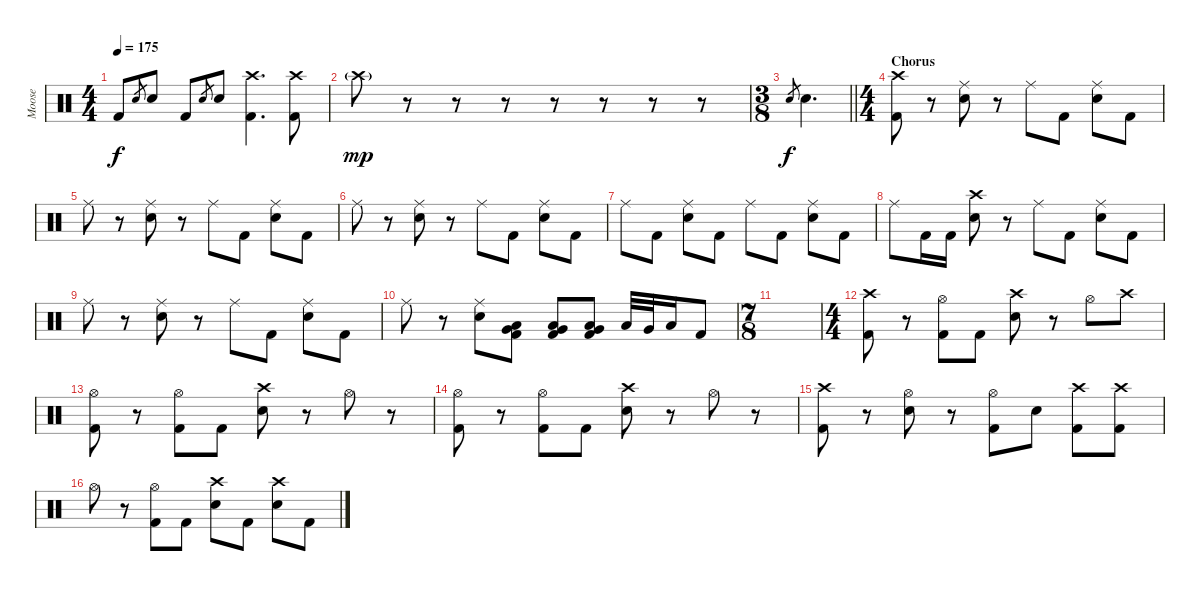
\track ("Moose" "Moose") {instrument percussion}
\staff {score}
\articulation defaults
\ts (4 4)
\tempo 175
\clef neutral
\ks c "Kick (hit) 2".8{dy f} "Electric Snare (hit)".8{gr} "Electric Snare (hit)".8 "Kick (hit) 2".8 "Electric Snare (hit)".8{gr} "Electric Snare (hit)".8
("Crash high (hit)" "Kick (hit) 2").4{d} ("Crash high (hit)" "Kick (hit) 2").8 |
"Crash high (hit)"{g}.8{dy mp volume 0} r.8 r.8 r.8 r.8 r.8{volume 16} r.8 r.8 |
\ts (3 8)
\barLineRight lightlight "Electric Snare (hit)".8{gr dy f} "Electric Snare (hit)".4{d}
|
\ts (4 4)
\section ("" "Chorus")
("Crash high (hit)" "Kick (hit) 2").8{volume 16} r.8 ("Ride (middle)" "Electric Snare (hit)").8 r.8 "Ride (middle)".8 "Kick (hit) 2".8 ("Ride (middle)" "Electric Snare (hit)").8 "Kick (hit) 2".8 |
"Ride (middle)".8 r.8 ("Ride (middle)" "Electric Snare (hit)").8 r.8 "Ride (middle)".8 "Kick (hit) 2".8 ("Ride (middle)" "Electric Snare (hit)").8 "Kick (hit) 2".8 |
"Ride (middle)".8 r.8 ("Ride (middle)" "Electric Snare (hit)").8 r.8 "Ride (middle)".8 "Kick (hit) 2".8 ("Ride (middle)" "Electric Snare (hit)").8 "Kick (hit) 2".8 |
"Ride (middle)".8 "Kick (hit) 2".8 ("Ride (middle)" "Electric Snare (hit)").8 "Kick (hit) 2".8 "Ride (middle)".8 "Kick (hit) 2".8 ("Ride (middle)" "Electric Snare (hit)").8 "Kick (hit) 2".8 |
"Ride (middle)".8 "Kick (hit) 2".16 "Kick (hit) 2".16 ("Crash high (hit)" "Electric Snare (hit)").8 r.8 "Ride (middle)".8 "Kick (hit) 2".8 ("Ride (middle)" "Electric Snare (hit)").8 "Kick (hit) 2".8 |
"Ride (middle)".8 r.8 ("Ride (middle)" "Electric Snare (hit)").8 r.8 "Ride (middle)".8 "Kick (hit) 2".8 ("Ride (middle)" "Electric Snare (hit)").8 "Kick (hit) 2".8 |
"Ride (middle)".8 r.8 ("Ride (middle)" "Electric Snare (hit)").8 ("Low Floor Tom (hit)" "Very Low Tom (hit)" "Kick (hit) 2").8 ("Low Floor Tom (hit)" "Very Low Tom (hit)" "Kick (hit) 2").8 ("Low Floor Tom (hit)" "Very Low Tom (hit)" "Kick (hit) 2").8 "Low Tom (hit)".32 "Very Low Tom (hit)".32 "Low Floor Tom (hit)".16 "Kick (hit) 2".8 |
\ts (7 8)
|
\ts (4 4)
("Crash high (hit)" "Kick (hit) 2").8 r.8 ("Hi-Hat (open)" "Kick (hit) 2").8 "Kick (hit) 2".8 ("Crash high (hit)" "Electric Snare (hit)").8 r.8 "Hi-Hat (open)".8 "Crash high (hit)".8 |
("Hi-Hat (open)" "Kick (hit) 2").8 r.8 ("Hi-Hat (open)" "Kick (hit) 2").8 "Kick (hit) 2".8 ("Crash high (hit)" "Electric Snare (hit)").8 r.8 "Hi-Hat (open)".8 r.8 |
("Hi-Hat (open)" "Kick (hit) 2").8 r.8 ("Hi-Hat (open)" "Kick (hit) 2").8 "Kick (hit) 2".8 ("Crash high (hit)" "Electric Snare (hit)").8 r.8 "Hi-Hat (open)".8 r.8 |
("Crash high (hit)" "Kick (hit) 2").8 r.8 ("Hi-Hat (open)" "Electric Snare (hit)").8 r.8 ("Hi-Hat (open)" "Kick (hit) 2").8 "Electric Snare (hit)".8 ("Crash high (hit)" "Kick (hit) 2").8 ("Crash high (hit)" "Kick (hit) 2").8 |
"Hi-Hat (open)".8 r.8 ("Hi-Hat (open)" "Kick (hit) 2").8 "Kick (hit) 2".8 ("Crash high (hit)" "Electric Snare (hit)").8 "Kick (hit) 2".8 ("Crash high (hit)" "Electric Snare (hit)").8 "Kick (hit) 2".8
